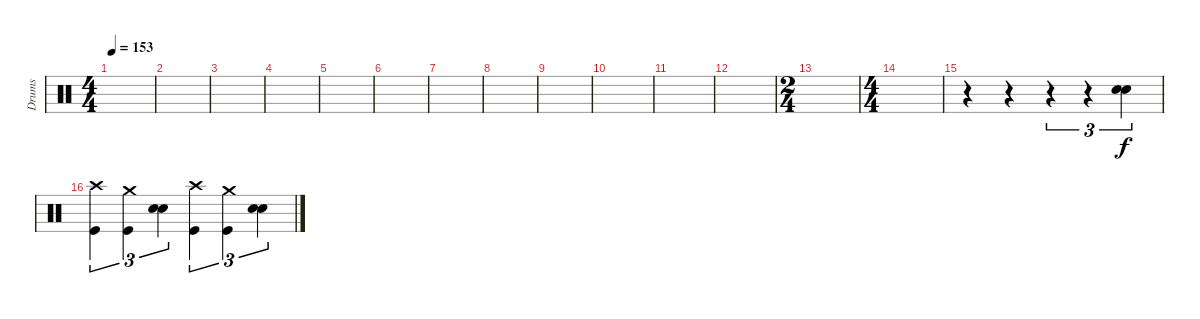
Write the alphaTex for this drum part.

\track ("Drums" "Drums") {instrument percussion}
\staff {score}
\articulation defaults
\ts (4 4)
\tempo 153
\clef neutral
\ks c
|
|
|
|
|
|
|
|
|
|
|
|
\ts (2 4)
|
\ts (4 4)
|
r.4 r.4 r.4{tu (3 2)} r.4{tu (3 2)} ("Snare (hit) 2" "Snare (hit) 2").4{tu (3 2) bu 480} |
("Crash high (hit)" "Kick (hit)").4{tu (3 2)} ("Crash medium (hit)" "Kick (hit)").4{tu (3 2)} ("Snare (hit) 2" "Snare (hit) 2").4{tu (3 2) bu 480} ("Crash high (hit)" "Kick (hit)").4{tu (3 2)} ("Crash medium (hit)" "Kick (hit)").4{tu (3 2)} ("Snare (hit) 2" "Snare (hit) 2").4{tu (3 2) bu 480}
